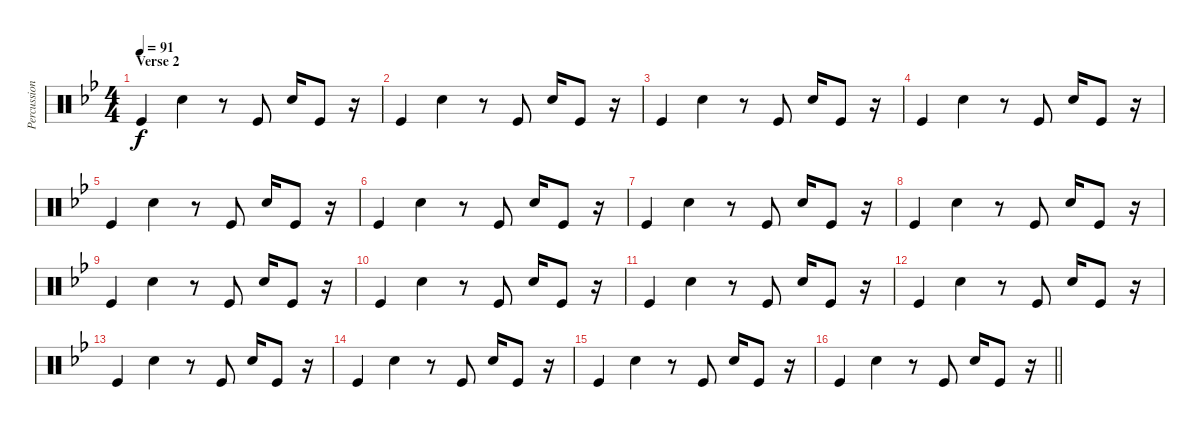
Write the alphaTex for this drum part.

\track ("Percussion" "Percussion") {instrument percussion}
\staff {score}
\articulation defaults
\ts (4 4)
\section ("" "Verse 2")
\tempo 91
\clef neutral
\ks bb "Kick (hit)".4{dy f} "Electric Snare (hit)".4
r.8 "Kick (hit)".8 "Electric Snare (hit)".16 "Kick (hit)".8 r.16 |
"Kick (hit)".4 "Electric Snare (hit)".4 r.8 "Kick (hit)".8 "Electric Snare (hit)".16 "Kick (hit)".8 r.16 |
"Kick (hit)".4 "Electric Snare (hit)".4 r.8 "Kick (hit)".8 "Electric Snare (hit)".16 "Kick (hit)".8 r.16 |
"Kick (hit)".4 "Electric Snare (hit)".4 r.8 "Kick (hit)".8 "Electric Snare (hit)".16 "Kick (hit)".8 r.16 |
"Kick (hit)".4 "Electric Snare (hit)".4 r.8 "Kick (hit)".8 "Electric Snare (hit)".16 "Kick (hit)".8 r.16 |
"Kick (hit)".4 "Electric Snare (hit)".4 r.8 "Kick (hit)".8 "Electric Snare (hit)".16 "Kick (hit)".8 r.16 |
"Kick (hit)".4 "Electric Snare (hit)".4 r.8 "Kick (hit)".8 "Electric Snare (hit)".16 "Kick (hit)".8 r.16 |
"Kick (hit)".4 "Electric Snare (hit)".4 r.8 "Kick (hit)".8 "Electric Snare (hit)".16 "Kick (hit)".8 r.16 |
"Kick (hit)".4 "Electric Snare (hit)".4 r.8 "Kick (hit)".8 "Electric Snare (hit)".16 "Kick (hit)".8 r.16 |
"Kick (hit)".4 "Electric Snare (hit)".4 r.8 "Kick (hit)".8 "Electric Snare (hit)".16 "Kick (hit)".8 r.16 |
"Kick (hit)".4 "Electric Snare (hit)".4 r.8 "Kick (hit)".8 "Electric Snare (hit)".16 "Kick (hit)".8 r.16 |
"Kick (hit)".4 "Electric Snare (hit)".4 r.8 "Kick (hit)".8 "Electric Snare (hit)".16 "Kick (hit)".8 r.16 |
"Kick (hit)".4 "Electric Snare (hit)".4 r.8 "Kick (hit)".8 "Electric Snare (hit)".16 "Kick (hit)".8 r.16 |
"Kick (hit)".4 "Electric Snare (hit)".4 r.8 "Kick (hit)".8 "Electric Snare (hit)".16 "Kick (hit)".8 r.16 |
"Kick (hit)".4 "Electric Snare (hit)".4 r.8 "Kick (hit)".8 "Electric Snare (hit)".16 "Kick (hit)".8 r.16 |
\barLineRight lightlight "Kick (hit)".4 "Electric Snare (hit)".4
r.8 "Kick (hit)".8 "Electric Snare (hit)".16 "Kick (hit)".8 r.16
